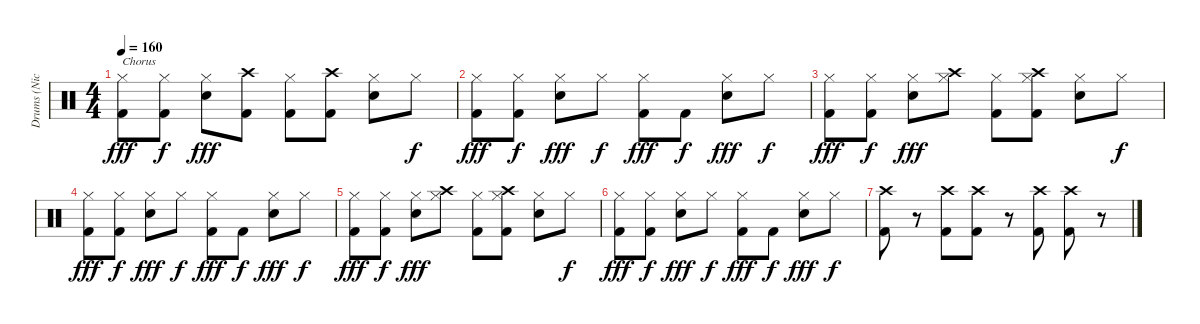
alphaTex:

\track ("Drums (Nicko)" "Drums (Nic") {instrument percussion}
\staff {score}
\articulation defaults
\ts (4 4)
\tempo 160
\clef neutral
\ks c
("Hi-Hat (closed)" "Kick (hit) 2").8{txt "Chorus" dy fff} ("Hi-Hat (closed)" "Kick (hit) 2").8{dy f} ("Hi-Hat (closed)" "Snare (hit) 2").8{dy fff} ("Kick (hit) 2" "Crash high (hit)").8 ("Hi-Hat (closed)" "Kick (hit) 2").8 ("Kick (hit) 2" "Crash high (hit)").8 ("Hi-Hat (closed)" "Snare (hit) 2").8 "Hi-Hat (closed)".8{dy f} |
("Hi-Hat (closed)" "Kick (hit) 2").8{dy fff} ("Hi-Hat (closed)" "Kick (hit) 2").8{dy f} ("Hi-Hat (closed)" "Snare (hit) 2").8{dy fff} "Hi-Hat (closed)".8{dy f} ("Hi-Hat (closed)" "Kick (hit) 2").8{dy fff} "Kick (hit) 2".8{dy f} ("Hi-Hat (closed)" "Snare (hit) 2").8{dy fff} "Hi-Hat (closed)".8{dy f} |
("Hi-Hat (closed)" "Kick (hit) 2").8{dy fff} ("Hi-Hat (closed)" "Kick (hit) 2").8{dy f} ("Hi-Hat (closed)" "Snare (hit) 2").8{dy fff} ("Hi-Hat (closed)" "Crash high (hit)").8 ("Hi-Hat (closed)" "Kick (hit) 2").8 ("Hi-Hat (closed)" "Kick (hit) 2" "Crash high (hit)").8 ("Hi-Hat (closed)" "Snare (hit) 2").8 "Hi-Hat (closed)".8{dy f} |
("Hi-Hat (closed)" "Kick (hit) 2").8{dy fff} ("Hi-Hat (closed)" "Kick (hit) 2").8{dy f} ("Hi-Hat (closed)" "Snare (hit) 2").8{dy fff} "Hi-Hat (closed)".8{dy f} ("Hi-Hat (closed)" "Kick (hit) 2").8{dy fff} "Kick (hit) 2".8{dy f} ("Hi-Hat (closed)" "Snare (hit) 2").8{dy fff} "Hi-Hat (closed)".8{dy f} |
("Hi-Hat (closed)" "Kick (hit) 2").8{dy fff} ("Hi-Hat (closed)" "Kick (hit) 2").8{dy f} ("Hi-Hat (closed)" "Snare (hit) 2").8{dy fff} ("Hi-Hat (closed)" "Crash high (hit)").8 ("Hi-Hat (closed)" "Kick (hit) 2").8 ("Hi-Hat (closed)" "Kick (hit) 2" "Crash high (hit)").8 ("Hi-Hat (closed)" "Snare (hit) 2").8 "Hi-Hat (closed)".8{dy f} |
("Hi-Hat (closed)" "Kick (hit) 2").8{dy fff} ("Hi-Hat (closed)" "Kick (hit) 2").8{dy f} ("Hi-Hat (closed)" "Snare (hit) 2").8{dy fff} "Hi-Hat (closed)".8{dy f} ("Hi-Hat (closed)" "Kick (hit) 2").8{dy fff} "Kick (hit) 2".8{dy f} ("Hi-Hat (closed)" "Snare (hit) 2").8{dy fff} "Hi-Hat (closed)".8{dy f} |
("Crash high (hit)" "Kick (hit) 2").8 r.8 ("Crash high (hit)" "Kick (hit) 2").8 ("Crash high (hit)" "Kick (hit) 2").8 r.8 ("Crash high (hit)" "Kick (hit) 2").8 ("Crash high (hit)" "Kick (hit) 2").8 r.8
